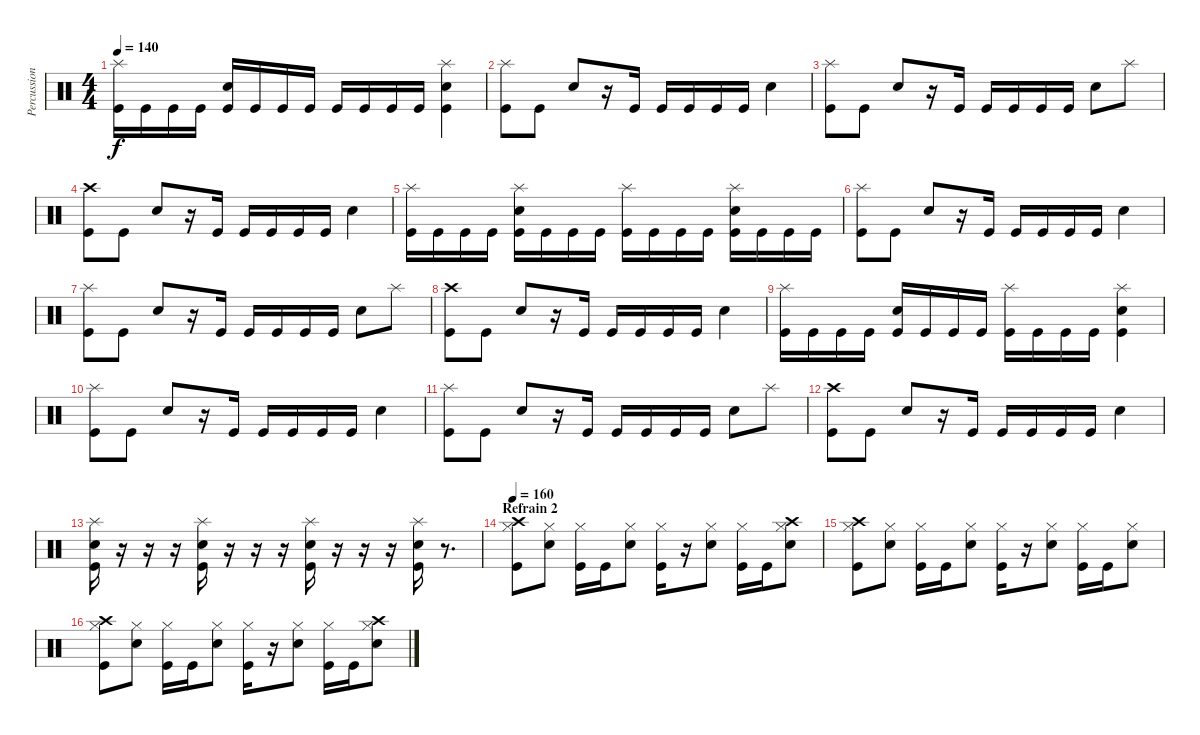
\track ("Percussion" "Percussion") {instrument percussion}
\staff {score}
\articulation defaults
\ts (4 4)
\tempo 140
\clef neutral
\ks c
("Splash (hit)" "Kick (hit)").16{dy f} "Kick (hit)".16 "Kick (hit)".16 "Kick (hit)".16 ("Electric Snare (hit)" "Kick (hit)").16 "Kick (hit)".16 "Kick (hit)".16 "Kick (hit)".16 "Kick (hit)".16 "Kick (hit)".16 "Kick (hit)".16 "Kick (hit)".16 ("Splash (hit)" "Electric Snare (hit)" "Kick (hit)").4 |
("Splash (hit)" "Kick (hit)").8 "Kick (hit)".8 "Electric Snare (hit)".8 r.16 "Kick (hit)".16 "Kick (hit)".16 "Kick (hit)".16 "Kick (hit)".16 "Kick (hit)".16 "Electric Snare (hit)".4 |
("Splash (hit)" "Kick (hit)").8 "Kick (hit)".8 "Electric Snare (hit)".8 r.16 "Kick (hit)".16 "Kick (hit)".16 "Kick (hit)".16 "Kick (hit)".16 "Kick (hit)".16 "Electric Snare (hit)".8 "Splash (hit)".8 |
("Crash high (hit)" "Kick (hit)").8 "Kick (hit)".8 "Electric Snare (hit)".8 r.16 "Kick (hit)".16 "Kick (hit)".16 "Kick (hit)".16 "Kick (hit)".16 "Kick (hit)".16 "Electric Snare (hit)".4 |
("Splash (hit)" "Kick (hit)").16 "Kick (hit)".16 "Kick (hit)".16 "Kick (hit)".16 ("Splash (hit)" "Electric Snare (hit)" "Kick (hit)").16 "Kick (hit)".16 "Kick (hit)".16 "Kick (hit)".16 ("Splash (hit)" "Kick (hit)").16 "Kick (hit)".16 "Kick (hit)".16 "Kick (hit)".16 ("Splash (hit)" "Electric Snare (hit)" "Kick (hit)").16 "Kick (hit)".16 "Kick (hit)".16 "Kick (hit)".16 |
("Splash (hit)" "Kick (hit)").8 "Kick (hit)".8 "Electric Snare (hit)".8 r.16 "Kick (hit)".16 "Kick (hit)".16 "Kick (hit)".16 "Kick (hit)".16 "Kick (hit)".16 "Electric Snare (hit)".4 |
("Splash (hit)" "Kick (hit)").8 "Kick (hit)".8 "Electric Snare (hit)".8 r.16 "Kick (hit)".16 "Kick (hit)".16 "Kick (hit)".16 "Kick (hit)".16 "Kick (hit)".16 "Electric Snare (hit)".8 "Splash (hit)".8 |
("Crash high (hit)" "Kick (hit)").8 "Kick (hit)".8 "Electric Snare (hit)".8 r.16 "Kick (hit)".16 "Kick (hit)".16 "Kick (hit)".16 "Kick (hit)".16 "Kick (hit)".16 "Electric Snare (hit)".4 |
("Splash (hit)" "Kick (hit)").16 "Kick (hit)".16 "Kick (hit)".16 "Kick (hit)".16 ("Electric Snare (hit)" "Kick (hit)").16 "Kick (hit)".16 "Kick (hit)".16 "Kick (hit)".16 ("Splash (hit)" "Kick (hit)").16 "Kick (hit)".16 "Kick (hit)".16 "Kick (hit)".16 ("Splash (hit)" "Electric Snare (hit)" "Kick (hit)").4 |
("Splash (hit)" "Kick (hit)").8 "Kick (hit)".8 "Electric Snare (hit)".8 r.16 "Kick (hit)".16 "Kick (hit)".16 "Kick (hit)".16 "Kick (hit)".16 "Kick (hit)".16 "Electric Snare (hit)".4 |
("Splash (hit)" "Kick (hit)").8 "Kick (hit)".8 "Electric Snare (hit)".8 r.16 "Kick (hit)".16 "Kick (hit)".16 "Kick (hit)".16 "Kick (hit)".16 "Kick (hit)".16 "Electric Snare (hit)".8 "Splash (hit)".8 |
("Crash high (hit)" "Kick (hit)").8 "Kick (hit)".8 "Electric Snare (hit)".8 r.16 "Kick (hit)".16 "Kick (hit)".16 "Kick (hit)".16 "Kick (hit)".16 "Kick (hit)".16 "Electric Snare (hit)".4 |
("Splash (hit)" "Electric Snare (hit)" "Kick (hit)").16 r.16 r.16 r.16 ("Splash (hit)" "Electric Snare (hit)" "Kick (hit)").16 r.16 r.16 r.16 ("Splash (hit)" "Electric Snare (hit)" "Kick (hit)").16 r.16 r.16 r.16 ("Splash (hit)" "Electric Snare (hit)" "Kick (hit)").16 r.8{d} |
\section ("" "Refrain 2")
\tempo 160
("Crash high (hit)" "Hi-Hat (closed)" "Kick (hit)").8 ("Hi-Hat (closed)" "Electric Snare (hit)").8 ("Hi-Hat (closed)" "Kick (hit)").16 "Kick (hit)".16 ("Hi-Hat (closed)" "Electric Snare (hit)").8 ("Hi-Hat (closed)" "Kick (hit)").16 r.16 ("Hi-Hat (closed)" "Electric Snare (hit)").8 ("Hi-Hat (closed)" "Kick (hit)").16 "Kick (hit)".16 ("Crash high (hit)" "Hi-Hat (closed)" "Electric Snare (hit)").8 |
("Crash high (hit)" "Hi-Hat (closed)" "Kick (hit)").8 ("Hi-Hat (closed)" "Electric Snare (hit)").8 ("Hi-Hat (closed)" "Kick (hit)").16 "Kick (hit)".16 ("Hi-Hat (closed)" "Electric Snare (hit)").8 ("Hi-Hat (closed)" "Kick (hit)").16 r.16 ("Hi-Hat (closed)" "Electric Snare (hit)").8 ("Hi-Hat (closed)" "Kick (hit)").16 "Kick (hit)".16 ("Hi-Hat (closed)" "Electric Snare (hit)").8 |
("Crash high (hit)" "Hi-Hat (closed)" "Kick (hit)").8 ("Hi-Hat (closed)" "Electric Snare (hit)").8 ("Hi-Hat (closed)" "Kick (hit)").16 "Kick (hit)".16 ("Hi-Hat (closed)" "Electric Snare (hit)").8 ("Hi-Hat (closed)" "Kick (hit)").16 r.16 ("Hi-Hat (closed)" "Electric Snare (hit)").8 ("Hi-Hat (closed)" "Kick (hit)").16 "Kick (hit)".16 ("Crash high (hit)" "Hi-Hat (closed)" "Electric Snare (hit)").8
